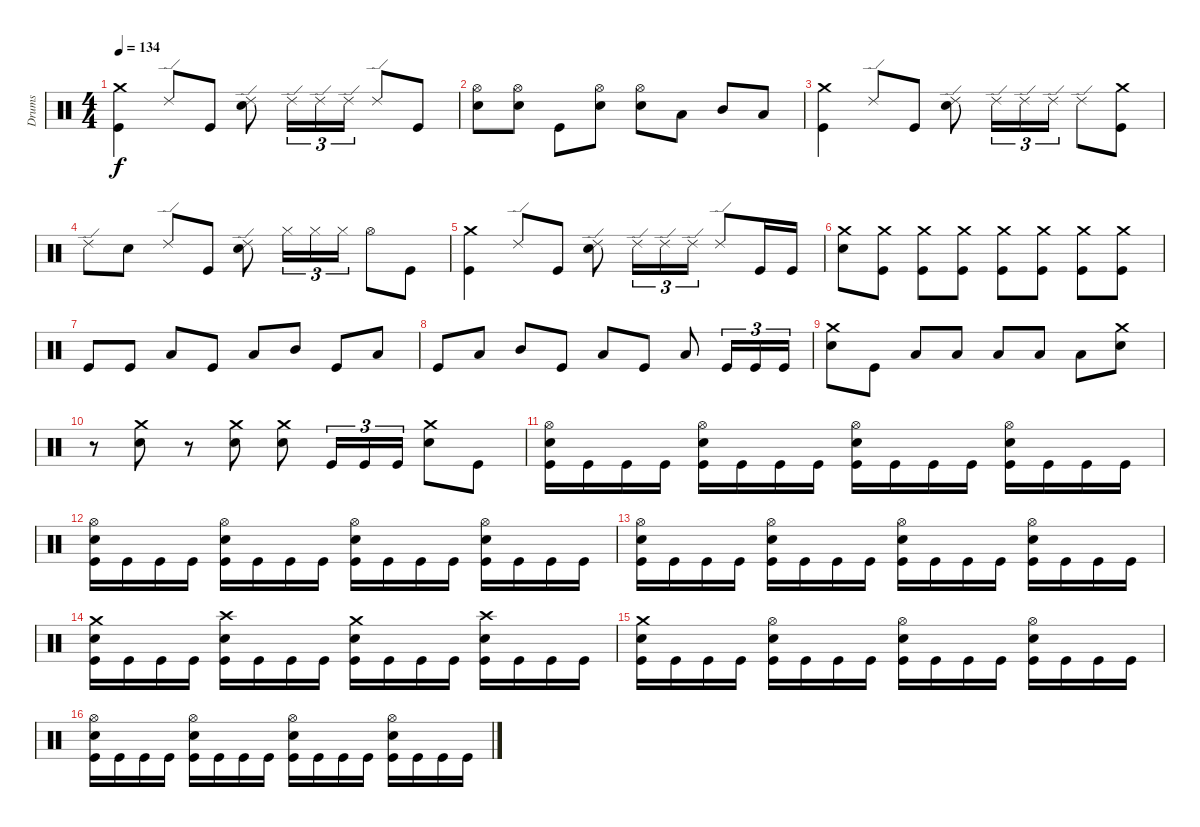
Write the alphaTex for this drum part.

\track ("Drums" "Drums") {instrument percussion}
\staff {score}
\articulation defaults
\ts (4 4)
\tempo 134
\clef neutral
\ks c
("Crash medium (hit)" "Kick (hit)").4{dy f} "Ride (edge) 2".8 "Kick (hit)".8 ("Ride (edge) 2" "Snare (hit) 2").8 "Ride (edge) 2".16{tu (3 2)} "Ride (edge) 2".16{tu (3 2)} "Ride (edge) 2".16{tu (3 2)} "Ride (edge) 2".8 "Kick (hit)".8 |
("Hi-Hat (open)" "Snare (hit) 2").8 ("Hi-Hat (open)" "Snare (hit) 2").8 "Kick (hit)".8 ("Hi-Hat (open)" "Snare (hit) 2").8 ("Hi-Hat (open)" "Snare (hit) 2").8 "Low Tom (hit)".8 "Mid Tom (hit)".8 "Low Floor Tom (hit)".8 |
("Crash medium (hit)" "Kick (hit)").4 "Ride (edge) 2".8 "Kick (hit)".8 ("Ride (edge) 2" "Snare (hit) 2").8 "Ride (edge) 2".16{tu (3 2)} "Ride (edge) 2".16{tu (3 2)} "Ride (edge) 2".16{tu (3 2)} "Ride (edge) 2".8 ("Crash medium (hit)" "Kick (hit)").8 |
"Ride (edge) 2".8 "Snare (hit) 2".8 "Ride (edge) 2".8 "Kick (hit)".8 ("Ride (edge) 2" "Snare (hit) 2").8 "Hi-Hat (closed)".16{tu (3 2)} "Hi-Hat (closed)".16{tu (3 2)} "Hi-Hat (closed)".16{tu (3 2)} "Hi-Hat (open)".8 "Kick (hit)".8 |
("Crash medium (hit)" "Kick (hit)").4 "Ride (edge) 2".8 "Kick (hit)".8 ("Ride (edge) 2" "Snare (hit) 2").8 "Ride (edge) 2".16{tu (3 2)} "Ride (edge) 2".16{tu (3 2)} "Ride (edge) 2".16{tu (3 2)} "Ride (edge) 2".8 "Kick (hit)".16 "Kick (hit)".16 |
("Crash medium (hit)" "Snare (hit) 2").8 ("Crash medium (hit)" "Kick (hit)").8 ("Crash medium (hit)" "Kick (hit)").8 ("Crash medium (hit)" "Kick (hit)").8 ("Crash medium (hit)" "Kick (hit)").8 ("Crash medium (hit)" "Kick (hit)").8 ("Crash medium (hit)" "Kick (hit)").8 ("Crash medium (hit)" "Kick (hit)").8 |
"Kick (hit)".8 "Kick (hit)".8 "Low Tom (hit)".8 "Kick (hit)".8 "Low Tom (hit)".8 "Mid Tom (hit)".8 "Kick (hit)".8 "Low Tom (hit)".8 |
"Kick (hit)".8 "Low Tom (hit)".8 "Mid Tom (hit)".8 "Kick (hit)".8 "Low Tom (hit)".8 "Kick (hit)".8 "Low Tom (hit)".8 "Kick (hit)".16{tu (3 2)} "Kick (hit)".16{tu (3 2)} "Kick (hit)".16{tu (3 2)} |
("Crash medium (hit)" "Snare (hit) 2").8 "Kick (hit)".8 "Low Tom (hit)".8 "Low Tom (hit)".8 "Low Tom (hit)".8 "Low Tom (hit)".8 "Low Tom (hit)".8 ("Crash medium (hit)" "Snare (hit) 2").8 |
r.8 ("Crash medium (hit)" "Snare (hit) 2").8 r.8 ("Crash medium (hit)" "Snare (hit) 2").8 ("Crash medium (hit)" "Snare (hit) 2").8 "Kick (hit)".16{tu (3 2)} "Kick (hit)".16{tu (3 2)} "Kick (hit)".16{tu (3 2)} ("Crash medium (hit)" "Snare (hit) 2").8 "Kick (hit)".8 |
("Hi-Hat (open)" "Snare (hit) 2" "Kick (hit)").16 "Kick (hit)".16 "Kick (hit)".16 "Kick (hit)".16 ("Hi-Hat (open)" "Snare (hit) 2" "Kick (hit)").16 "Kick (hit)".16 "Kick (hit)".16 "Kick (hit)".16 ("Hi-Hat (open)" "Snare (hit) 2" "Kick (hit)").16 "Kick (hit)".16 "Kick (hit)".16 "Kick (hit)".16 ("Hi-Hat (open)" "Snare (hit) 2" "Kick (hit)").16 "Kick (hit)".16 "Kick (hit)".16 "Kick (hit)".16 |
("Hi-Hat (open)" "Snare (hit) 2" "Kick (hit)").16 "Kick (hit)".16 "Kick (hit)".16 "Kick (hit)".16 ("Hi-Hat (open)" "Snare (hit) 2" "Kick (hit)").16 "Kick (hit)".16 "Kick (hit)".16 "Kick (hit)".16 ("Hi-Hat (open)" "Snare (hit) 2" "Kick (hit)").16 "Kick (hit)".16 "Kick (hit)".16 "Kick (hit)".16 ("Hi-Hat (open)" "Snare (hit) 2" "Kick (hit)").16 "Kick (hit)".16 "Kick (hit)".16 "Kick (hit)".16 |
("Hi-Hat (open)" "Snare (hit) 2" "Kick (hit)").16 "Kick (hit)".16 "Kick (hit)".16 "Kick (hit)".16 ("Hi-Hat (open)" "Snare (hit) 2" "Kick (hit)").16 "Kick (hit)".16 "Kick (hit)".16 "Kick (hit)".16 ("Hi-Hat (open)" "Snare (hit) 2" "Kick (hit)").16 "Kick (hit)".16 "Kick (hit)".16 "Kick (hit)".16 ("Hi-Hat (open)" "Snare (hit) 2" "Kick (hit)").16 "Kick (hit)".16 "Kick (hit)".16 "Kick (hit)".16 |
("Crash medium (hit)" "Snare (hit) 2" "Kick (hit)").16 "Kick (hit)".16 "Kick (hit)".16 "Kick (hit)".16 ("Crash high (hit)" "Snare (hit) 2" "Kick (hit)").16 "Kick (hit)".16 "Kick (hit)".16 "Kick (hit)".16 ("Crash medium (hit)" "Snare (hit) 2" "Kick (hit)").16 "Kick (hit)".16 "Kick (hit)".16 "Kick (hit)".16 ("Crash high (hit)" "Snare (hit) 2" "Kick (hit)").16 "Kick (hit)".16 "Kick (hit)".16 "Kick (hit)".16 |
("Crash medium (hit)" "Snare (hit) 2" "Kick (hit)").16 "Kick (hit)".16 "Kick (hit)".16 "Kick (hit)".16 ("Hi-Hat (open)" "Snare (hit) 2" "Kick (hit)").16 "Kick (hit)".16 "Kick (hit)".16 "Kick (hit)".16 ("Hi-Hat (open)" "Snare (hit) 2" "Kick (hit)").16 "Kick (hit)".16 "Kick (hit)".16 "Kick (hit)".16 ("Hi-Hat (open)" "Snare (hit) 2" "Kick (hit)").16 "Kick (hit)".16 "Kick (hit)".16 "Kick (hit)".16 |
("Hi-Hat (open)" "Snare (hit) 2" "Kick (hit)").16 "Kick (hit)".16 "Kick (hit)".16 "Kick (hit)".16 ("Hi-Hat (open)" "Snare (hit) 2" "Kick (hit)").16 "Kick (hit)".16 "Kick (hit)".16 "Kick (hit)".16 ("Hi-Hat (open)" "Snare (hit) 2" "Kick (hit)").16 "Kick (hit)".16 "Kick (hit)".16 "Kick (hit)".16 ("Hi-Hat (open)" "Snare (hit) 2" "Kick (hit)").16 "Kick (hit)".16 "Kick (hit)".16 "Kick (hit)".16
